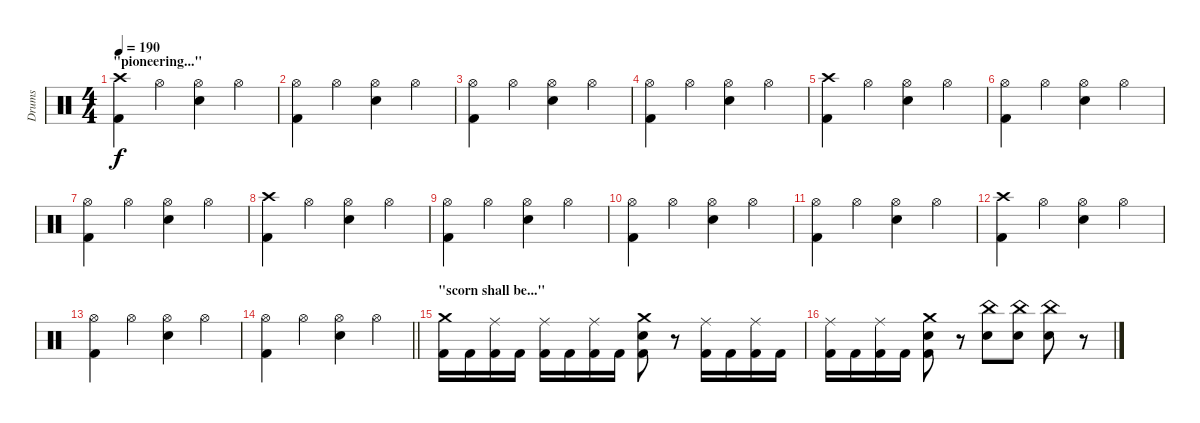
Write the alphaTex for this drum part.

\track ("Drums" "Drums") {instrument percussion}
\staff {score}
\articulation defaults
\ts (4 4)
\section ("" "\"pioneering...\"")
\tempo 190
\clef neutral
\ks c
("Crash high (hit)" "Kick (hit) 2").4{dy f} "Hi-Hat (open)".4 ("Hi-Hat (open)" "Snare (hit) 2").4 "Hi-Hat (open)".4 |
("Hi-Hat (open)" "Kick (hit) 2").4 "Hi-Hat (open)".4 ("Hi-Hat (open)" "Snare (hit) 2").4 "Hi-Hat (open)".4 |
("Hi-Hat (open)" "Kick (hit) 2").4 "Hi-Hat (open)".4 ("Hi-Hat (open)" "Snare (hit) 2").4 "Hi-Hat (open)".4 |
("Hi-Hat (open)" "Kick (hit) 2").4 "Hi-Hat (open)".4 ("Hi-Hat (open)" "Snare (hit) 2").4 "Hi-Hat (open)".4 |
("Crash high (hit)" "Kick (hit) 2").4 "Hi-Hat (open)".4 ("Hi-Hat (open)" "Snare (hit) 2").4 "Hi-Hat (open)".4 |
("Hi-Hat (open)" "Kick (hit) 2").4 "Hi-Hat (open)".4 ("Hi-Hat (open)" "Snare (hit) 2").4 "Hi-Hat (open)".4 |
("Hi-Hat (open)" "Kick (hit) 2").4 "Hi-Hat (open)".4 ("Hi-Hat (open)" "Snare (hit) 2").4 "Hi-Hat (open)".4 |
("Crash high (hit)" "Kick (hit) 2").4 "Hi-Hat (open)".4 ("Hi-Hat (open)" "Snare (hit) 2").4 "Hi-Hat (open)".4 |
("Hi-Hat (open)" "Kick (hit) 2").4 "Hi-Hat (open)".4 ("Hi-Hat (open)" "Snare (hit) 2").4 "Hi-Hat (open)".4 |
("Hi-Hat (open)" "Kick (hit) 2").4 "Hi-Hat (open)".4 ("Hi-Hat (open)" "Snare (hit) 2").4 "Hi-Hat (open)".4 |
("Hi-Hat (open)" "Kick (hit) 2").4 "Hi-Hat (open)".4 ("Hi-Hat (open)" "Snare (hit) 2").4 "Hi-Hat (open)".4 |
("Crash high (hit)" "Kick (hit) 2").4 "Hi-Hat (open)".4 ("Hi-Hat (open)" "Snare (hit) 2").4 "Hi-Hat (open)".4 |
("Hi-Hat (open)" "Kick (hit) 2").4 "Hi-Hat (open)".4 ("Hi-Hat (open)" "Snare (hit) 2").4 "Hi-Hat (open)".4 |
\barLineRight lightlight
("Hi-Hat (open)" "Kick (hit) 2").4 "Hi-Hat (open)".4 ("Hi-Hat (open)" "Snare (hit) 2").4 "Hi-Hat (open)".4 |
\section ("" "\"scorn shall be...\"")
("Crash medium (hit)" "Kick (hit) 2").16 "Kick (hit) 2".16 ("Ride (middle)" "Kick (hit) 2").16 "Kick (hit) 2".16 ("Ride (middle)" "Kick (hit) 2").16 "Kick (hit) 2".16 ("Ride (middle)" "Kick (hit) 2").16 "Kick (hit) 2".16 ("Crash medium (hit)" "Snare (hit) 2" "Kick (hit) 2").8 r.8 ("Ride (middle)" "Kick (hit) 2").16 "Kick (hit) 2".16 ("Ride (middle)" "Kick (hit) 2").16 "Kick (hit) 2".16 |
("Ride (middle)" "Kick (hit) 2").16 "Kick (hit) 2".16 ("Ride (middle)" "Kick (hit) 2").16 "Kick (hit) 2".16 ("Crash medium (hit)" "Snare (hit) 2" "Kick (hit) 2").8 r.8 ("China (hit)" "Snare (hit) 2").8 ("China (hit)" "Snare (hit) 2").8 ("China (hit)" "Snare (hit) 2").8 r.8
